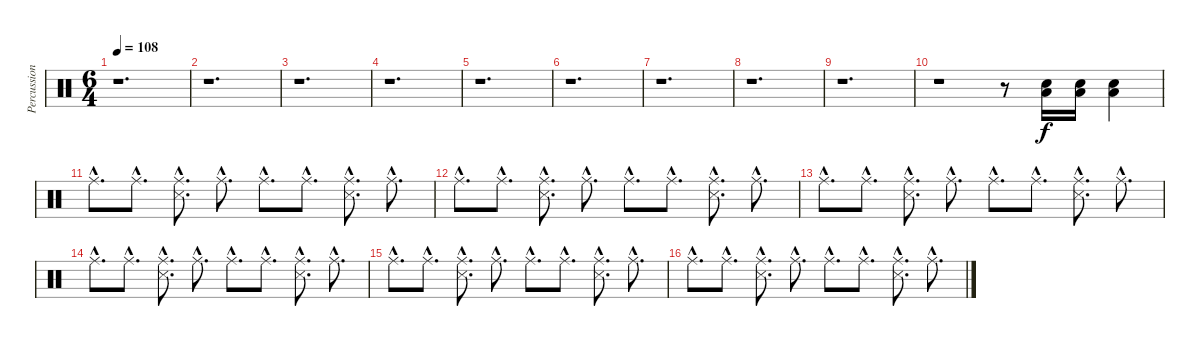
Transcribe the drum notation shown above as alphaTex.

\track ("Percussion" "Percussion") {instrument percussion}
\staff {score}
\articulation defaults
\ts (6 4)
\tempo 108
\clef neutral
\ks c
r.1{d dy f} |
r.1{d} |
r.1{d} |
r.1{d} |
r.1{d} |
r.1{d} |
r.1{d} |
r.1{d} |
r.1{d} |
r.1 r.8 ("Low Tom (hit)" "Electric Snare (hit)").16 ("Low Tom (hit)" "Electric Snare (hit)").16 ("Low Tom (hit)" "Electric Snare (hit)").4 |
"Ride (middle)"{hac}.8{d} "Ride (middle)"{hac}.8{d} ("Ride (middle)"{hac} "Snare (side stick) 3"{hac}).8{d} "Ride (middle)"{hac}.8{d} "Ride (middle)"{hac}.8{d} "Ride (middle)"{hac}.8{d} ("Ride (middle)"{hac} "Snare (side stick) 3"{hac}).8{d} "Ride (middle)"{hac}.8{d} |
"Ride (middle)"{hac}.8{d} "Ride (middle)"{hac}.8{d} ("Ride (middle)"{hac} "Snare (side stick) 3"{hac}).8{d} "Ride (middle)"{hac}.8{d} "Ride (middle)"{hac}.8{d} "Ride (middle)"{hac}.8{d} ("Ride (middle)"{hac} "Snare (side stick) 3"{hac}).8{d} "Ride (middle)"{hac}.8{d} |
"Ride (middle)"{hac}.8{d} "Ride (middle)"{hac}.8{d} ("Ride (middle)"{hac} "Snare (side stick) 3"{hac}).8{d} "Ride (middle)"{hac}.8{d} "Ride (middle)"{hac}.8{d} "Ride (middle)"{hac}.8{d} ("Ride (middle)"{hac} "Snare (side stick) 3"{hac}).8{d} "Ride (middle)"{hac}.8{d} |
"Ride (middle)"{hac}.8{d} "Ride (middle)"{hac}.8{d} ("Ride (middle)"{hac} "Snare (side stick) 3"{hac}).8{d} "Ride (middle)"{hac}.8{d} "Ride (middle)"{hac}.8{d} "Ride (middle)"{hac}.8{d} ("Ride (middle)"{hac} "Snare (side stick) 3"{hac}).8{d} "Ride (middle)"{hac}.8{d} |
"Ride (middle)"{hac}.8{d} "Ride (middle)"{hac}.8{d} ("Ride (middle)"{hac} "Snare (side stick) 3"{hac}).8{d} "Ride (middle)"{hac}.8{d} "Ride (middle)"{hac}.8{d} "Ride (middle)"{hac}.8{d} ("Ride (middle)"{hac} "Snare (side stick) 3"{hac}).8{d} "Ride (middle)"{hac}.8{d} |
"Ride (middle)"{hac}.8{d} "Ride (middle)"{hac}.8{d} ("Ride (middle)"{hac} "Snare (side stick) 3"{hac}).8{d} "Ride (middle)"{hac}.8{d} "Ride (middle)"{hac}.8{d} "Ride (middle)"{hac}.8{d} ("Ride (middle)"{hac} "Snare (side stick) 3"{hac}).8{d} "Ride (middle)"{hac}.8{d}
